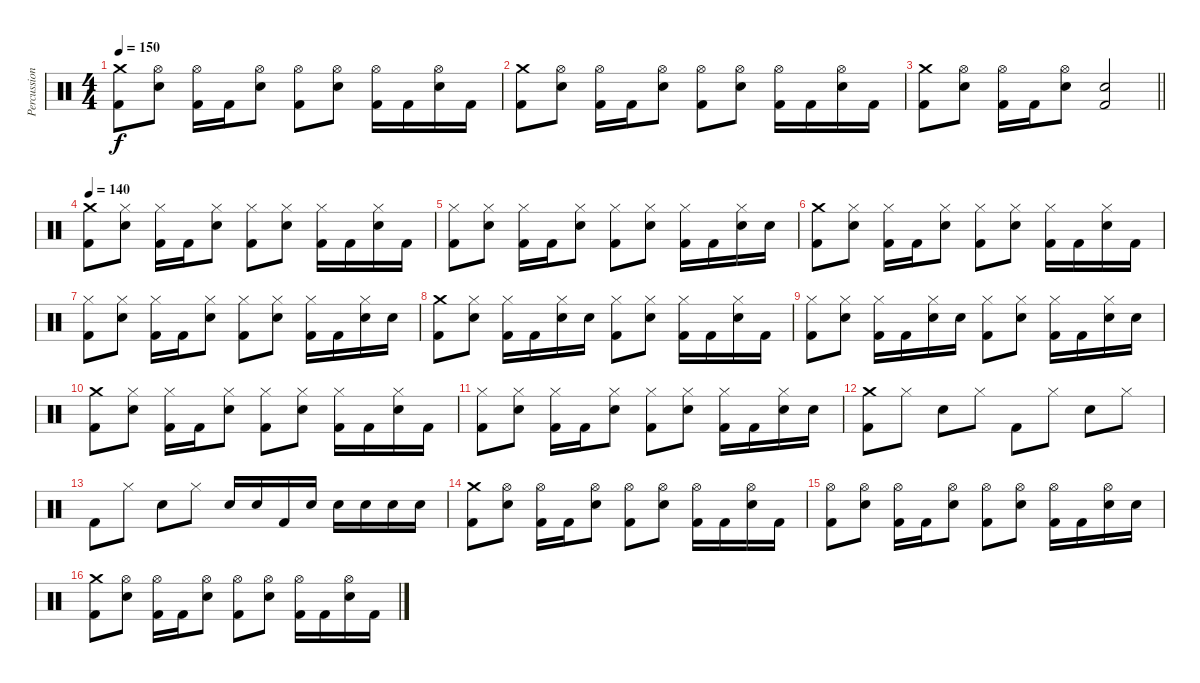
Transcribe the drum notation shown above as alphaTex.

\track ("Percussion" "Percussion") {instrument percussion}
\staff {score}
\articulation defaults
\ts (4 4)
\tempo 150
\clef neutral
\ks c
("Crash medium (hit)" "Kick (hit) 2").8{dy f} ("Hi-Hat (open)" "Electric Snare (hit)").8 ("Hi-Hat (open)" "Kick (hit) 2").16 "Kick (hit) 2".16 ("Hi-Hat (open)" "Electric Snare (hit)").8 ("Hi-Hat (open)" "Kick (hit) 2").8 ("Hi-Hat (open)" "Electric Snare (hit)").8 ("Hi-Hat (open)" "Kick (hit) 2").16 "Kick (hit) 2".16 ("Hi-Hat (open)" "Electric Snare (hit)").16 "Kick (hit) 2".16 |
("Crash medium (hit)" "Kick (hit) 2").8 ("Hi-Hat (open)" "Electric Snare (hit)").8 ("Hi-Hat (open)" "Kick (hit) 2").16 "Kick (hit) 2".16 ("Hi-Hat (open)" "Electric Snare (hit)").8 ("Hi-Hat (open)" "Kick (hit) 2").8 ("Hi-Hat (open)" "Electric Snare (hit)").8 ("Hi-Hat (open)" "Kick (hit) 2").16 "Kick (hit) 2".16 ("Hi-Hat (open)" "Electric Snare (hit)").16 "Kick (hit) 2".16 |
\barLineRight lightlight
("Crash medium (hit)" "Kick (hit) 2").8 ("Hi-Hat (open)" "Electric Snare (hit)").8 ("Hi-Hat (open)" "Kick (hit) 2").16 "Kick (hit) 2".16 ("Hi-Hat (open)" "Electric Snare (hit)").8 ("Electric Snare (hit)" "Kick (hit) 2").2 |
\tempo 140
("Crash medium (hit)" "Kick (hit) 2").8 ("Hi-Hat (closed)" "Electric Snare (hit)").8 ("Hi-Hat (closed)" "Kick (hit) 2").16 "Kick (hit) 2".16 ("Hi-Hat (closed)" "Electric Snare (hit)").8 ("Hi-Hat (closed)" "Kick (hit) 2").8 ("Hi-Hat (closed)" "Electric Snare (hit)").8 ("Hi-Hat (closed)" "Kick (hit) 2").16 "Kick (hit) 2".16 ("Hi-Hat (closed)" "Electric Snare (hit)").16 "Kick (hit) 2".16 |
("Hi-Hat (closed)" "Kick (hit) 2").8 ("Hi-Hat (closed)" "Electric Snare (hit)").8 ("Hi-Hat (closed)" "Kick (hit) 2").16 "Kick (hit) 2".16 ("Hi-Hat (closed)" "Electric Snare (hit)").8 ("Hi-Hat (closed)" "Kick (hit) 2").8 ("Hi-Hat (closed)" "Electric Snare (hit)").8 ("Hi-Hat (closed)" "Kick (hit) 2").16 "Kick (hit) 2".16 ("Hi-Hat (closed)" "Electric Snare (hit)").16 "Electric Snare (hit)".16 |
("Crash medium (hit)" "Kick (hit) 2").8 ("Hi-Hat (closed)" "Electric Snare (hit)").8 ("Hi-Hat (closed)" "Kick (hit) 2").16 "Kick (hit) 2".16 ("Hi-Hat (closed)" "Electric Snare (hit)").8 ("Hi-Hat (closed)" "Kick (hit) 2").8 ("Hi-Hat (closed)" "Electric Snare (hit)").8 ("Hi-Hat (closed)" "Kick (hit) 2").16 "Kick (hit) 2".16 ("Hi-Hat (closed)" "Electric Snare (hit)").16 "Kick (hit) 2".16 |
("Hi-Hat (closed)" "Kick (hit) 2").8 ("Hi-Hat (closed)" "Electric Snare (hit)").8 ("Hi-Hat (closed)" "Kick (hit) 2").16 "Kick (hit) 2".16 ("Hi-Hat (closed)" "Electric Snare (hit)").8 ("Hi-Hat (closed)" "Kick (hit) 2").8 ("Hi-Hat (closed)" "Electric Snare (hit)").8 ("Hi-Hat (closed)" "Kick (hit) 2").16 "Kick (hit) 2".16 ("Hi-Hat (closed)" "Electric Snare (hit)").16 "Electric Snare (hit)".16 |
("Crash medium (hit)" "Kick (hit) 2").8 ("Hi-Hat (closed)" "Electric Snare (hit)").8 ("Hi-Hat (closed)" "Kick (hit) 2").16 "Kick (hit) 2".16 ("Hi-Hat (closed)" "Electric Snare (hit)").16 "Electric Snare (hit)".16 ("Hi-Hat (closed)" "Kick (hit) 2").8 ("Hi-Hat (closed)" "Electric Snare (hit)").8 ("Hi-Hat (closed)" "Kick (hit) 2").16 "Kick (hit) 2".16 ("Hi-Hat (closed)" "Electric Snare (hit)").16 "Kick (hit) 2".16 |
("Hi-Hat (closed)" "Kick (hit) 2").8 ("Hi-Hat (closed)" "Electric Snare (hit)").8 ("Hi-Hat (closed)" "Kick (hit) 2").16 "Kick (hit) 2".16 ("Hi-Hat (closed)" "Electric Snare (hit)").16 "Electric Snare (hit)".16 ("Hi-Hat (closed)" "Kick (hit) 2").8 ("Hi-Hat (closed)" "Electric Snare (hit)").8 ("Hi-Hat (closed)" "Kick (hit) 2").16 "Kick (hit) 2".16 ("Hi-Hat (closed)" "Electric Snare (hit)").16 "Electric Snare (hit)".16 |
("Crash medium (hit)" "Kick (hit) 2").8 ("Hi-Hat (closed)" "Electric Snare (hit)").8 ("Hi-Hat (closed)" "Kick (hit) 2").16 "Kick (hit) 2".16 ("Hi-Hat (closed)" "Electric Snare (hit)").8 ("Hi-Hat (closed)" "Kick (hit) 2").8 ("Hi-Hat (closed)" "Electric Snare (hit)").8 ("Hi-Hat (closed)" "Kick (hit) 2").16 "Kick (hit) 2".16 ("Hi-Hat (closed)" "Electric Snare (hit)").16 "Kick (hit) 2".16 |
("Hi-Hat (closed)" "Kick (hit) 2").8 ("Hi-Hat (closed)" "Electric Snare (hit)").8 ("Hi-Hat (closed)" "Kick (hit) 2").16 "Kick (hit) 2".16 ("Hi-Hat (closed)" "Electric Snare (hit)").8 ("Hi-Hat (closed)" "Kick (hit) 2").8 ("Hi-Hat (closed)" "Electric Snare (hit)").8 ("Hi-Hat (closed)" "Kick (hit) 2").16 "Kick (hit) 2".16 ("Hi-Hat (closed)" "Electric Snare (hit)").16 "Electric Snare (hit)".16 |
("Crash medium (hit)" "Kick (hit) 2").8 "Hi-Hat (closed)".8 "Electric Snare (hit)".8 "Hi-Hat (closed)".8 "Kick (hit) 2".8 "Hi-Hat (closed)".8 "Electric Snare (hit)".8 "Hi-Hat (closed)".8 |
"Kick (hit) 2".8 "Hi-Hat (closed)".8 "Electric Snare (hit)".8 "Hi-Hat (closed)".8 "Electric Snare (hit)".16 "Electric Snare (hit)".16 "Kick (hit) 2".16 "Electric Snare (hit)".16 "Electric Snare (hit)".16 "Electric Snare (hit)".16 "Electric Snare (hit)".16 "Electric Snare (hit)".16 |
("Crash medium (hit)" "Kick (hit) 2").8 ("Hi-Hat (open)" "Electric Snare (hit)").8 ("Hi-Hat (open)" "Kick (hit) 2").16 "Kick (hit) 2".16 ("Hi-Hat (open)" "Electric Snare (hit)").8 ("Hi-Hat (open)" "Kick (hit) 2").8 ("Hi-Hat (open)" "Electric Snare (hit)").8 ("Hi-Hat (open)" "Kick (hit) 2").16 "Kick (hit) 2".16 ("Hi-Hat (open)" "Electric Snare (hit)").16 "Kick (hit) 2".16 |
("Hi-Hat (open)" "Kick (hit) 2").8 ("Hi-Hat (open)" "Electric Snare (hit)").8 ("Hi-Hat (open)" "Kick (hit) 2").16 "Kick (hit) 2".16 ("Hi-Hat (open)" "Electric Snare (hit)").8 ("Hi-Hat (open)" "Kick (hit) 2").8 ("Hi-Hat (open)" "Electric Snare (hit)").8 ("Hi-Hat (open)" "Kick (hit) 2").16 "Kick (hit) 2".16 ("Hi-Hat (open)" "Electric Snare (hit)").16 "Electric Snare (hit)".16 |
("Crash medium (hit)" "Kick (hit) 2").8 ("Hi-Hat (open)" "Electric Snare (hit)").8 ("Hi-Hat (open)" "Kick (hit) 2").16 "Kick (hit) 2".16 ("Hi-Hat (open)" "Electric Snare (hit)").8 ("Hi-Hat (open)" "Kick (hit) 2").8 ("Hi-Hat (open)" "Electric Snare (hit)").8 ("Hi-Hat (open)" "Kick (hit) 2").16 "Kick (hit) 2".16 ("Hi-Hat (open)" "Electric Snare (hit)").16 "Kick (hit) 2".16
